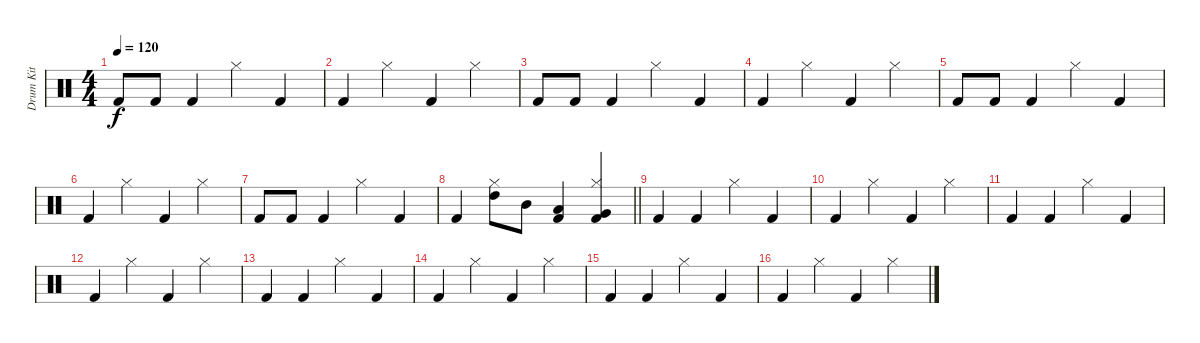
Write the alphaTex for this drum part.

\track ("Drum Kit" "Drum Kit") {instrument percussion}
\staff {score}
\articulation defaults
\ts (4 4)
\tempo 120
\clef neutral
\ks c "Kick (hit) 2".8{dy f} "Kick (hit) 2".8 "Kick (hit) 2".4 "Hi-Hat (closed)".4 "Kick (hit) 2".4
|
"Kick (hit) 2".4 "Hi-Hat (closed)".4 "Kick (hit) 2".4 "Hi-Hat (closed)".4 |
"Kick (hit) 2".8 "Kick (hit) 2".8 "Kick (hit) 2".4 "Hi-Hat (closed)".4 "Kick (hit) 2".4 |
"Kick (hit) 2".4 "Hi-Hat (closed)".4 "Kick (hit) 2".4 "Hi-Hat (closed)".4 |
"Kick (hit) 2".8 "Kick (hit) 2".8 "Kick (hit) 2".4 "Hi-Hat (closed)".4 "Kick (hit) 2".4 |
"Kick (hit) 2".4 "Hi-Hat (closed)".4 "Kick (hit) 2".4 "Hi-Hat (closed)".4 |
"Kick (hit) 2".8 "Kick (hit) 2".8 "Kick (hit) 2".4 "Hi-Hat (closed)".4 "Kick (hit) 2".4 |
\barLineRight lightlight "Kick (hit) 2".4
("High Tom (hit)" "Hi-Hat (closed)").8 "Mid Tom (hit)".8 ("Low Tom (hit)" "Kick (hit) 2").4 ("Very Low Tom (hit)" "Hi-Hat (closed)" "Kick (hit) 2").4 |
"Kick (hit) 2".4 "Kick (hit) 2".4 "Hi-Hat (closed)".4 "Kick (hit) 2".4 |
"Kick (hit) 2".4 "Hi-Hat (closed)".4 "Kick (hit) 2".4 "Hi-Hat (closed)".4 |
"Kick (hit) 2".4 "Kick (hit) 2".4 "Hi-Hat (closed)".4 "Kick (hit) 2".4 |
"Kick (hit) 2".4 "Hi-Hat (closed)".4 "Kick (hit) 2".4 "Hi-Hat (closed)".4 |
"Kick (hit) 2".4 "Kick (hit) 2".4 "Hi-Hat (closed)".4 "Kick (hit) 2".4 |
"Kick (hit) 2".4 "Hi-Hat (closed)".4 "Kick (hit) 2".4 "Hi-Hat (closed)".4 |
"Kick (hit) 2".4 "Kick (hit) 2".4 "Hi-Hat (closed)".4 "Kick (hit) 2".4 |
"Kick (hit) 2".4 "Hi-Hat (closed)".4 "Kick (hit) 2".4 "Hi-Hat (closed)".4
